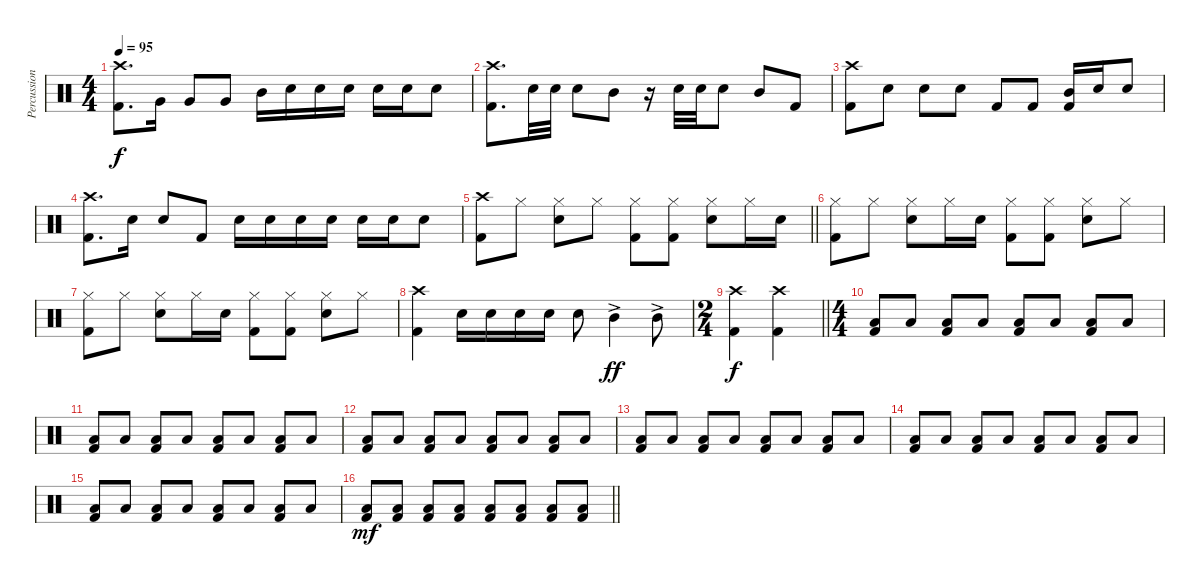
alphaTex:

\track ("Percussion" "Percussion") {instrument percussion}
\staff {score}
\articulation defaults
\ts (4 4)
\tempo 95
\clef neutral
\ks c
("Crash high (hit)" "Kick (hit) 2").8{d dy f} "Very Low Tom (hit)".16 "Very Low Tom (hit)".8 "Very Low Tom (hit)".8 "Mid Tom (hit)".16 "Snare (hit) 2".16 "Snare (hit) 2".16 "Snare (hit) 2".16 "Snare (hit) 2".16 "Snare (hit) 2".16 "Snare (hit) 2".8 |
("Kick (hit) 2" "Crash high (hit)").8{d} "Snare (hit) 2".32 "Snare (hit) 2".32 "Snare (hit) 2".8 "Mid Tom (hit)".8 r.16 "Snare (hit) 2".32 "Snare (hit) 2".32 "Snare (hit) 2".8 "Mid Tom (hit)".8 "Kick (hit) 2".8 |
("Crash high (hit)" "Kick (hit) 2").8 "Snare (hit) 2".8 "Snare (hit) 2".8 "Snare (hit) 2".8 "Kick (hit) 2".8 "Kick (hit) 2".8 ("Mid Tom (hit)" "Kick (hit) 2").16 "Snare (hit) 2".16 "Snare (hit) 2".8 |
("Crash high (hit)" "Kick (hit) 2").8{d} "Snare (hit) 2".16 "Snare (hit) 2".8 "Kick (hit) 2".8 "Snare (hit) 2".16 "Snare (hit) 2".16 "Snare (hit) 2".16 "Snare (hit) 2".16 "Snare (hit) 2".16 "Snare (hit) 2".16 "Snare (hit) 2".8 |
\barLineRight lightlight
("Crash high (hit)" "Kick (hit) 2").8 "Hi-Hat (closed)".8 ("Hi-Hat (closed)" "Snare (hit) 2").8 "Hi-Hat (closed)".8 ("Hi-Hat (closed)" "Kick (hit) 2").8 ("Hi-Hat (closed)" "Kick (hit) 2").8 ("Hi-Hat (closed)" "Snare (hit) 2").8 "Hi-Hat (closed)".16 "Snare (hit) 2".16 |
("Hi-Hat (closed)" "Kick (hit) 2").8 "Hi-Hat (closed)".8 ("Hi-Hat (closed)" "Snare (hit) 2").8 "Hi-Hat (closed)".16 "Snare (hit) 2".16 ("Hi-Hat (closed)" "Kick (hit) 2").8 ("Hi-Hat (closed)" "Kick (hit) 2").8 ("Hi-Hat (closed)" "Snare (hit) 2").8 "Hi-Hat (closed)".8 |
("Hi-Hat (closed)" "Kick (hit) 2").8 "Hi-Hat (closed)".8 ("Hi-Hat (closed)" "Snare (hit) 2").8 "Hi-Hat (closed)".16 "Snare (hit) 2".16 ("Hi-Hat (closed)" "Kick (hit) 2").8 ("Hi-Hat (closed)" "Kick (hit) 2").8 ("Hi-Hat (closed)" "Snare (hit) 2").8 "Hi-Hat (closed)".8 |
("Crash high (hit)" "Kick (hit) 2").4 "Snare (hit) 2".16 "Snare (hit) 2".16 "Snare (hit) 2".16 "Snare (hit) 2".16 "Snare (hit) 2".8 "Mid Tom (hit)"{ac}.4{dy ff} "Mid Tom (hit)"{ac}.8 |
\ts (2 4)
\barLineRight lightlight
("Crash high (hit)" "Kick (hit) 2").4{dy f} ("Crash high (hit)" "Kick (hit) 2").4 |
\ts (4 4)
("Low Floor Tom (hit)" "Kick (hit) 2").8 "Low Floor Tom (hit)".8 ("Low Floor Tom (hit)" "Kick (hit) 2").8 "Low Floor Tom (hit)".8 ("Low Floor Tom (hit)" "Kick (hit) 2").8 "Low Floor Tom (hit)".8 ("Low Floor Tom (hit)" "Kick (hit) 2").8 "Low Floor Tom (hit)".8 |
("Low Floor Tom (hit)" "Kick (hit) 2").8 "Low Floor Tom (hit)".8 ("Low Floor Tom (hit)" "Kick (hit) 2").8 "Low Floor Tom (hit)".8 ("Low Floor Tom (hit)" "Kick (hit) 2").8 "Low Floor Tom (hit)".8 ("Low Floor Tom (hit)" "Kick (hit) 2").8 "Low Floor Tom (hit)".8 |
("Low Floor Tom (hit)" "Kick (hit) 2").8 "Low Floor Tom (hit)".8 ("Low Floor Tom (hit)" "Kick (hit) 2").8 "Low Floor Tom (hit)".8 ("Low Floor Tom (hit)" "Kick (hit) 2").8 "Low Floor Tom (hit)".8 ("Low Floor Tom (hit)" "Kick (hit) 2").8 "Low Floor Tom (hit)".8 |
("Low Floor Tom (hit)" "Kick (hit) 2").8 "Low Floor Tom (hit)".8 ("Low Floor Tom (hit)" "Kick (hit) 2").8 "Low Floor Tom (hit)".8 ("Low Floor Tom (hit)" "Kick (hit) 2").8 "Low Floor Tom (hit)".8 ("Low Floor Tom (hit)" "Kick (hit) 2").8 "Low Floor Tom (hit)".8 |
("Low Floor Tom (hit)" "Kick (hit) 2").8 "Low Floor Tom (hit)".8 ("Low Floor Tom (hit)" "Kick (hit) 2").8 "Low Floor Tom (hit)".8 ("Low Floor Tom (hit)" "Kick (hit) 2").8 "Low Floor Tom (hit)".8 ("Low Floor Tom (hit)" "Kick (hit) 2").8 "Low Floor Tom (hit)".8 |
("Low Floor Tom (hit)" "Kick (hit) 2").8 "Low Floor Tom (hit)".8 ("Low Floor Tom (hit)" "Kick (hit) 2").8 "Low Floor Tom (hit)".8 ("Low Floor Tom (hit)" "Kick (hit) 2").8 "Low Floor Tom (hit)".8 ("Low Floor Tom (hit)" "Kick (hit) 2").8 "Low Floor Tom (hit)".8 |
\barLineRight lightlight
("Low Floor Tom (hit)" "Kick (hit) 2").8{dy mf} ("Low Floor Tom (hit)" "Kick (hit) 2").8 ("Low Floor Tom (hit)" "Kick (hit) 2").8 ("Low Floor Tom (hit)" "Kick (hit) 2").8 ("Low Floor Tom (hit)" "Kick (hit) 2").8 ("Low Floor Tom (hit)" "Kick (hit) 2").8 ("Low Floor Tom (hit)" "Kick (hit) 2").8 ("Low Floor Tom (hit)" "Kick (hit) 2").8
